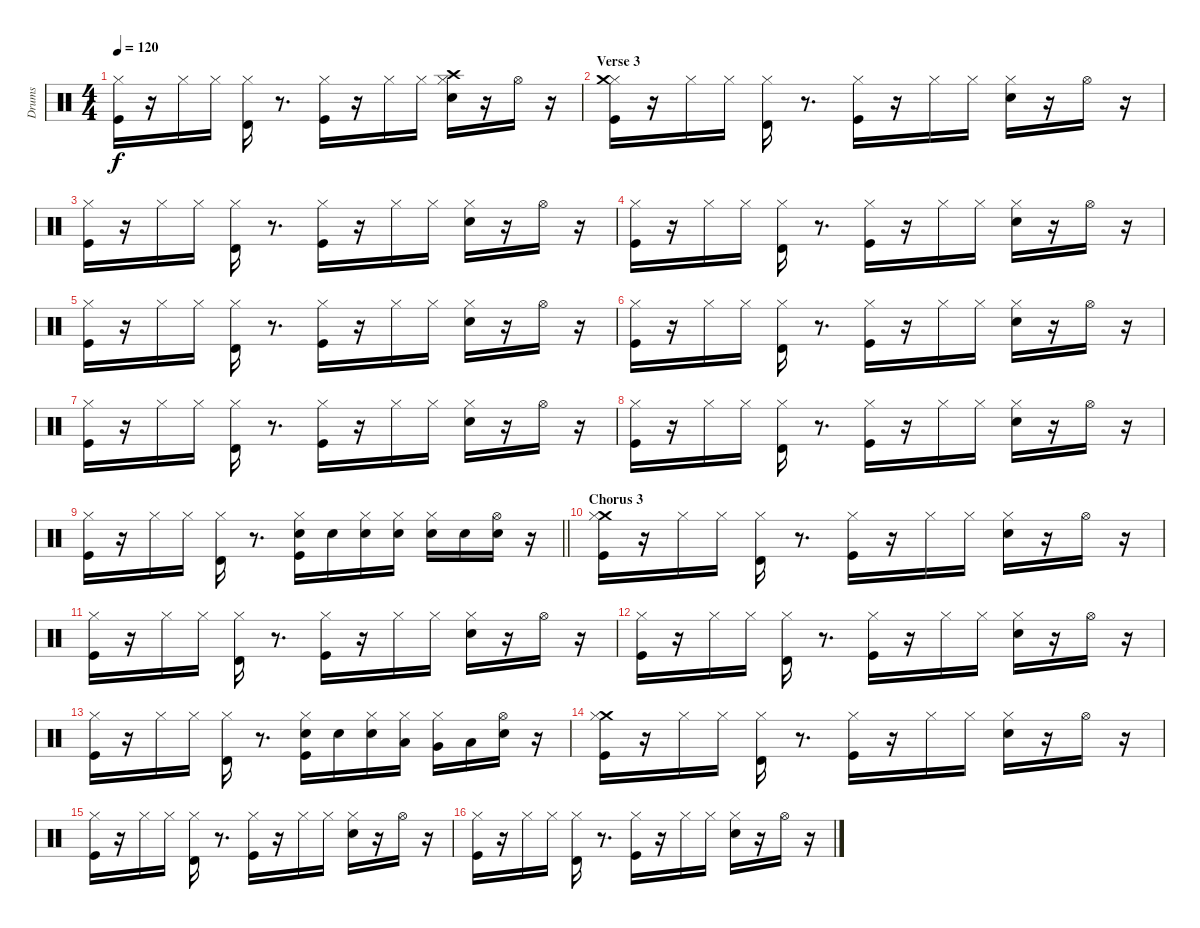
\track ("Drums" "Drums") {instrument percussion}
\staff {score}
\articulation defaults
\ts (4 4)
\tempo 120
\clef neutral
\ks c
("Hi-Hat (closed)" "Kick (hit)").16{dy f} r.16 "Hi-Hat (closed)".16 "Hi-Hat (closed)".16 ("Hi-Hat (closed)" "Timbale high (hit)").16 r.8{d} ("Hi-Hat (closed)" "Kick (hit)").16 r.16 "Hi-Hat (closed)".16 "Hi-Hat (closed)".16 ("Crash high (hit)" "Hi-Hat (closed)" "Snare (hit) 2").16 r.16 "Hi-Hat (open)".16 r.16 |
\section ("" "Verse 3")
("Hi-Hat (closed)" "Kick (hit)" "Crash medium (hit)").16 r.16 "Hi-Hat (closed)".16 "Hi-Hat (closed)".16 ("Hi-Hat (closed)" "Timbale high (hit)").16 r.8{d} ("Hi-Hat (closed)" "Kick (hit)").16 r.16 "Hi-Hat (closed)".16 "Hi-Hat (closed)".16 ("Hi-Hat (closed)" "Snare (hit) 2").16 r.16 "Hi-Hat (open)".16 r.16 |
("Hi-Hat (closed)" "Kick (hit)").16 r.16 "Hi-Hat (closed)".16 "Hi-Hat (closed)".16 ("Hi-Hat (closed)" "Timbale high (hit)").16 r.8{d} ("Hi-Hat (closed)" "Kick (hit)").16 r.16 "Hi-Hat (closed)".16 "Hi-Hat (closed)".16 ("Hi-Hat (closed)" "Snare (hit) 2").16 r.16 "Hi-Hat (open)".16 r.16 |
("Hi-Hat (closed)" "Kick (hit)").16 r.16 "Hi-Hat (closed)".16 "Hi-Hat (closed)".16 ("Hi-Hat (closed)" "Timbale high (hit)").16 r.8{d} ("Hi-Hat (closed)" "Kick (hit)").16 r.16 "Hi-Hat (closed)".16 "Hi-Hat (closed)".16 ("Hi-Hat (closed)" "Snare (hit) 2").16 r.16 "Hi-Hat (open)".16 r.16 |
("Hi-Hat (closed)" "Kick (hit)").16 r.16 "Hi-Hat (closed)".16 "Hi-Hat (closed)".16 ("Hi-Hat (closed)" "Timbale high (hit)").16 r.8{d} ("Hi-Hat (closed)" "Kick (hit)").16 r.16 "Hi-Hat (closed)".16 "Hi-Hat (closed)".16 ("Hi-Hat (closed)" "Snare (hit) 2").16 r.16 "Hi-Hat (open)".16 r.16 |
("Hi-Hat (closed)" "Kick (hit)").16 r.16 "Hi-Hat (closed)".16 "Hi-Hat (closed)".16 ("Hi-Hat (closed)" "Timbale high (hit)").16 r.8{d} ("Hi-Hat (closed)" "Kick (hit)").16 r.16 "Hi-Hat (closed)".16 "Hi-Hat (closed)".16 ("Hi-Hat (closed)" "Snare (hit) 2").16 r.16 "Hi-Hat (open)".16 r.16 |
("Hi-Hat (closed)" "Kick (hit)").16 r.16 "Hi-Hat (closed)".16 "Hi-Hat (closed)".16 ("Hi-Hat (closed)" "Timbale high (hit)").16 r.8{d} ("Hi-Hat (closed)" "Kick (hit)").16 r.16 "Hi-Hat (closed)".16 "Hi-Hat (closed)".16 ("Hi-Hat (closed)" "Snare (hit) 2").16 r.16 "Hi-Hat (open)".16 r.16 |
("Hi-Hat (closed)" "Kick (hit)").16 r.16 "Hi-Hat (closed)".16 "Hi-Hat (closed)".16 ("Hi-Hat (closed)" "Timbale high (hit)").16 r.8{d} ("Hi-Hat (closed)" "Kick (hit)").16 r.16 "Hi-Hat (closed)".16 "Hi-Hat (closed)".16 ("Hi-Hat (closed)" "Snare (hit) 2").16 r.16 "Hi-Hat (open)".16 r.16 |
\barLineRight lightlight
("Hi-Hat (closed)" "Kick (hit)").16 r.16 "Hi-Hat (closed)".16 "Hi-Hat (closed)".16 ("Hi-Hat (closed)" "Timbale high (hit)").16 r.8{d} ("Electric Snare (hit)" "Hi-Hat (closed)" "Kick (hit)").16 "Electric Snare (hit)".16 ("Electric Snare (hit)" "Hi-Hat (closed)").16 ("Electric Snare (hit)" "Hi-Hat (closed)").16 ("Hi-Hat (closed)" "Electric Snare (hit)").16 "Electric Snare (hit)".16 ("Electric Snare (hit)" "Hi-Hat (open)").16 r.16 |
\section ("" "Chorus 3")
("Crash medium (hit)" "Hi-Hat (closed)" "Kick (hit)").16 r.16 "Hi-Hat (closed)".16 "Hi-Hat (closed)".16 ("Hi-Hat (closed)" "Timbale high (hit)").16 r.8{d} ("Hi-Hat (closed)" "Kick (hit)").16 r.16 "Hi-Hat (closed)".16 "Hi-Hat (closed)".16 ("Hi-Hat (closed)" "Snare (hit) 2").16 r.16 "Hi-Hat (open)".16 r.16 |
("Hi-Hat (closed)" "Kick (hit)").16 r.16 "Hi-Hat (closed)".16 "Hi-Hat (closed)".16 ("Hi-Hat (closed)" "Timbale high (hit)").16 r.8{d} ("Hi-Hat (closed)" "Kick (hit)").16 r.16 "Hi-Hat (closed)".16 "Hi-Hat (closed)".16 ("Hi-Hat (closed)" "Snare (hit) 2").16 r.16 "Hi-Hat (open)".16 r.16 |
("Hi-Hat (closed)" "Kick (hit)").16 r.16 "Hi-Hat (closed)".16 "Hi-Hat (closed)".16 ("Hi-Hat (closed)" "Timbale high (hit)").16 r.8{d} ("Hi-Hat (closed)" "Kick (hit)").16 r.16 "Hi-Hat (closed)".16 "Hi-Hat (closed)".16 ("Hi-Hat (closed)" "Snare (hit) 2").16 r.16 "Hi-Hat (open)".16 r.16 |
("Hi-Hat (closed)" "Kick (hit)").16 r.16 "Hi-Hat (closed)".16 "Hi-Hat (closed)".16 ("Hi-Hat (closed)" "Timbale high (hit)").16 r.8{d} ("Electric Snare (hit)" "Hi-Hat (closed)" "Kick (hit)").16 "Electric Snare (hit)".16 ("Electric Snare (hit)" "Hi-Hat (closed)").16 ("Low Floor Tom (hit)" "Hi-Hat (closed)").16 ("Hi-Hat (closed)" "Very Low Tom (hit)").16 "Low Tom (hit)".16 ("Electric Snare (hit)" "Hi-Hat (open)").16 r.16 |
("Crash medium (hit)" "Hi-Hat (closed)" "Kick (hit)").16 r.16 "Hi-Hat (closed)".16 "Hi-Hat (closed)".16 ("Hi-Hat (closed)" "Timbale high (hit)").16 r.8{d} ("Hi-Hat (closed)" "Kick (hit)").16 r.16 "Hi-Hat (closed)".16 "Hi-Hat (closed)".16 ("Hi-Hat (closed)" "Snare (hit) 2").16 r.16 "Hi-Hat (open)".16 r.16 |
("Hi-Hat (closed)" "Kick (hit)").16 r.16 "Hi-Hat (closed)".16 "Hi-Hat (closed)".16 ("Hi-Hat (closed)" "Timbale high (hit)").16 r.8{d} ("Hi-Hat (closed)" "Kick (hit)").16 r.16 "Hi-Hat (closed)".16 "Hi-Hat (closed)".16 ("Hi-Hat (closed)" "Snare (hit) 2").16 r.16 "Hi-Hat (open)".16 r.16 |
("Hi-Hat (closed)" "Kick (hit)").16 r.16 "Hi-Hat (closed)".16 "Hi-Hat (closed)".16 ("Hi-Hat (closed)" "Timbale high (hit)").16 r.8{d} ("Hi-Hat (closed)" "Kick (hit)").16 r.16 "Hi-Hat (closed)".16 "Hi-Hat (closed)".16 ("Hi-Hat (closed)" "Snare (hit) 2").16 r.16 "Hi-Hat (open)".16 r.16
